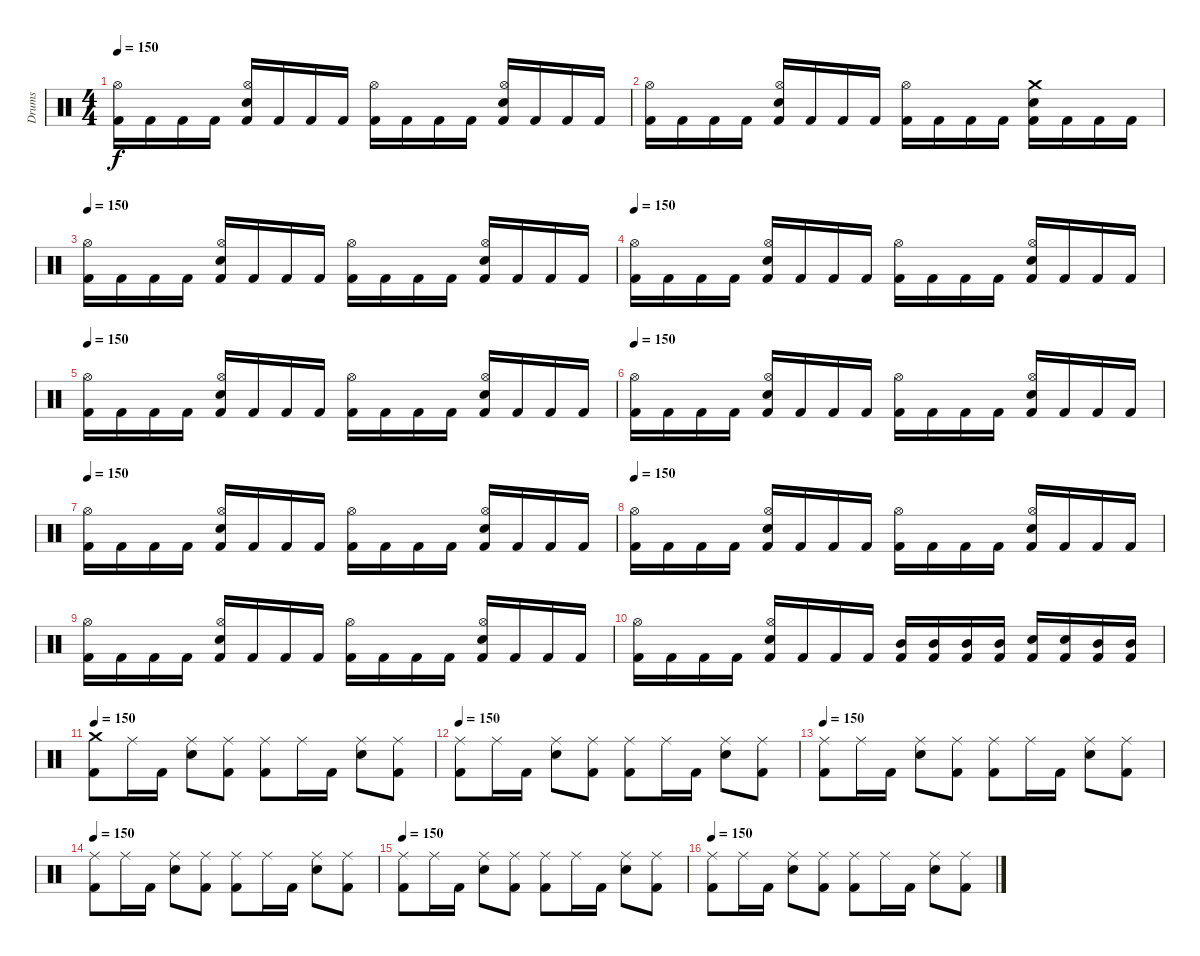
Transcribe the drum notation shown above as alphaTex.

\track ("Drums" "Drums") {instrument percussion}
\staff {score}
\articulation defaults
\ts (4 4)
\tempo 150
\clef neutral
\ks c
("Kick (hit) 2" "Hi-Hat (open)").16{dy f} "Kick (hit) 2".16 "Kick (hit) 2".16 "Kick (hit) 2".16 ("Kick (hit) 2" "Electric Snare (hit)" "Hi-Hat (open)").16 "Kick (hit) 2".16 "Kick (hit) 2".16 "Kick (hit) 2".16 ("Kick (hit) 2" "Hi-Hat (open)").16 "Kick (hit) 2".16 "Kick (hit) 2".16 "Kick (hit) 2".16 ("Kick (hit) 2" "Electric Snare (hit)" "Hi-Hat (open)").16 "Kick (hit) 2".16 "Kick (hit) 2".16 "Kick (hit) 2".16 |
("Kick (hit) 2" "Hi-Hat (open)").16 "Kick (hit) 2".16 "Kick (hit) 2".16 "Kick (hit) 2".16 ("Kick (hit) 2" "Electric Snare (hit)" "Hi-Hat (open)").16 "Kick (hit) 2".16 "Kick (hit) 2".16 "Kick (hit) 2".16 ("Kick (hit) 2" "Hi-Hat (open)").16 "Kick (hit) 2".16 "Kick (hit) 2".16 "Kick (hit) 2".16 ("Kick (hit) 2" "Electric Snare (hit)" "Crash medium (hit)").16 "Kick (hit) 2".16 "Kick (hit) 2".16 "Kick (hit) 2".16 |
\tempo 150
("Kick (hit) 2" "Hi-Hat (open)").16 "Kick (hit) 2".16 "Kick (hit) 2".16 "Kick (hit) 2".16 ("Kick (hit) 2" "Electric Snare (hit)" "Hi-Hat (open)").16 "Kick (hit) 2".16 "Kick (hit) 2".16 "Kick (hit) 2".16 ("Kick (hit) 2" "Hi-Hat (open)").16 "Kick (hit) 2".16 "Kick (hit) 2".16 "Kick (hit) 2".16 ("Kick (hit) 2" "Electric Snare (hit)" "Hi-Hat (open)").16 "Kick (hit) 2".16 "Kick (hit) 2".16 "Kick (hit) 2".16 |
\tempo 150
("Kick (hit) 2" "Hi-Hat (open)").16 "Kick (hit) 2".16 "Kick (hit) 2".16 "Kick (hit) 2".16 ("Kick (hit) 2" "Electric Snare (hit)" "Hi-Hat (open)").16 "Kick (hit) 2".16 "Kick (hit) 2".16 "Kick (hit) 2".16 ("Kick (hit) 2" "Hi-Hat (open)").16 "Kick (hit) 2".16 "Kick (hit) 2".16 "Kick (hit) 2".16 ("Kick (hit) 2" "Electric Snare (hit)" "Hi-Hat (open)").16 "Kick (hit) 2".16 "Kick (hit) 2".16 "Kick (hit) 2".16 |
\tempo 150
("Kick (hit) 2" "Hi-Hat (open)").16 "Kick (hit) 2".16 "Kick (hit) 2".16 "Kick (hit) 2".16 ("Kick (hit) 2" "Electric Snare (hit)" "Hi-Hat (open)").16 "Kick (hit) 2".16 "Kick (hit) 2".16 "Kick (hit) 2".16 ("Kick (hit) 2" "Hi-Hat (open)").16 "Kick (hit) 2".16 "Kick (hit) 2".16 "Kick (hit) 2".16 ("Kick (hit) 2" "Electric Snare (hit)" "Hi-Hat (open)").16 "Kick (hit) 2".16 "Kick (hit) 2".16 "Kick (hit) 2".16 |
\tempo 150
("Kick (hit) 2" "Hi-Hat (open)").16 "Kick (hit) 2".16 "Kick (hit) 2".16 "Kick (hit) 2".16 ("Kick (hit) 2" "Electric Snare (hit)" "Hi-Hat (open)").16 "Kick (hit) 2".16 "Kick (hit) 2".16 "Kick (hit) 2".16 ("Kick (hit) 2" "Hi-Hat (open)").16 "Kick (hit) 2".16 "Kick (hit) 2".16 "Kick (hit) 2".16 ("Kick (hit) 2" "Electric Snare (hit)" "Hi-Hat (open)").16 "Kick (hit) 2".16 "Kick (hit) 2".16 "Kick (hit) 2".16 |
\tempo 150
("Kick (hit) 2" "Hi-Hat (open)").16 "Kick (hit) 2".16 "Kick (hit) 2".16 "Kick (hit) 2".16 ("Kick (hit) 2" "Electric Snare (hit)" "Hi-Hat (open)").16 "Kick (hit) 2".16 "Kick (hit) 2".16 "Kick (hit) 2".16 ("Kick (hit) 2" "Hi-Hat (open)").16 "Kick (hit) 2".16 "Kick (hit) 2".16 "Kick (hit) 2".16 ("Kick (hit) 2" "Electric Snare (hit)" "Hi-Hat (open)").16 "Kick (hit) 2".16 "Kick (hit) 2".16 "Kick (hit) 2".16 |
\tempo 150
("Kick (hit) 2" "Hi-Hat (open)").16 "Kick (hit) 2".16 "Kick (hit) 2".16 "Kick (hit) 2".16 ("Kick (hit) 2" "Electric Snare (hit)" "Hi-Hat (open)").16 "Kick (hit) 2".16 "Kick (hit) 2".16 "Kick (hit) 2".16 ("Kick (hit) 2" "Hi-Hat (open)").16 "Kick (hit) 2".16 "Kick (hit) 2".16 "Kick (hit) 2".16 ("Kick (hit) 2" "Electric Snare (hit)" "Hi-Hat (open)").16 "Kick (hit) 2".16 "Kick (hit) 2".16 "Kick (hit) 2".16 |
("Kick (hit) 2" "Hi-Hat (open)").16 "Kick (hit) 2".16 "Kick (hit) 2".16 "Kick (hit) 2".16 ("Kick (hit) 2" "Electric Snare (hit)" "Hi-Hat (open)").16 "Kick (hit) 2".16 "Kick (hit) 2".16 "Kick (hit) 2".16 ("Kick (hit) 2" "Hi-Hat (open)").16 "Kick (hit) 2".16 "Kick (hit) 2".16 "Kick (hit) 2".16 ("Kick (hit) 2" "Electric Snare (hit)" "Hi-Hat (open)").16 "Kick (hit) 2".16 "Kick (hit) 2".16 "Kick (hit) 2".16 |
("Kick (hit) 2" "Hi-Hat (open)").16 "Kick (hit) 2".16 "Kick (hit) 2".16 "Kick (hit) 2".16 ("Kick (hit) 2" "Electric Snare (hit)" "Hi-Hat (open)").16 "Kick (hit) 2".16 "Kick (hit) 2".16 "Kick (hit) 2".16 ("Kick (hit) 2" "Mid Tom (hit)").16 ("Kick (hit) 2" "Mid Tom (hit)").16 ("Kick (hit) 2" "Mid Tom (hit)").16 ("Kick (hit) 2" "Mid Tom (hit)").16 ("Kick (hit) 2" "Electric Snare (hit)").16 ("Kick (hit) 2" "Electric Snare (hit)").16 ("Kick (hit) 2" "Mid Tom (hit)").16 ("Kick (hit) 2" "Mid Tom (hit)").16 |
\tempo 150
("Kick (hit) 2" "Crash medium (hit)").8 "Ride (middle)".16 "Kick (hit) 2".16 ("Electric Snare (hit)" "Ride (middle)").8 ("Kick (hit) 2" "Ride (middle)").8 ("Kick (hit) 2" "Ride (middle)").8 "Ride (middle)".16 "Kick (hit) 2".16 ("Electric Snare (hit)" "Ride (middle)").8 ("Kick (hit) 2" "Ride (middle)").8 |
\tempo 150
("Kick (hit) 2" "Ride (middle)").8 "Ride (middle)".16 "Kick (hit) 2".16 ("Electric Snare (hit)" "Ride (middle)").8 ("Kick (hit) 2" "Ride (middle)").8 ("Kick (hit) 2" "Ride (middle)").8 "Ride (middle)".16 "Kick (hit) 2".16 ("Electric Snare (hit)" "Ride (middle)").8 ("Kick (hit) 2" "Ride (middle)").8 |
\tempo 150
("Kick (hit) 2" "Ride (middle)").8 "Ride (middle)".16 "Kick (hit) 2".16 ("Electric Snare (hit)" "Ride (middle)").8 ("Kick (hit) 2" "Ride (middle)").8 ("Kick (hit) 2" "Ride (middle)").8 "Ride (middle)".16 "Kick (hit) 2".16 ("Electric Snare (hit)" "Ride (middle)").8 ("Kick (hit) 2" "Ride (middle)").8 |
\tempo 150
("Kick (hit) 2" "Ride (middle)").8 "Ride (middle)".16 "Kick (hit) 2".16 ("Electric Snare (hit)" "Ride (middle)").8 ("Kick (hit) 2" "Ride (middle)").8 ("Kick (hit) 2" "Ride (middle)").8 "Ride (middle)".16 "Kick (hit) 2".16 ("Electric Snare (hit)" "Ride (middle)").8 ("Kick (hit) 2" "Ride (middle)").8 |
\tempo 150
("Kick (hit) 2" "Ride (middle)").8 "Ride (middle)".16 "Kick (hit) 2".16 ("Electric Snare (hit)" "Ride (middle)").8 ("Kick (hit) 2" "Ride (middle)").8 ("Kick (hit) 2" "Ride (middle)").8 "Ride (middle)".16 "Kick (hit) 2".16 ("Electric Snare (hit)" "Ride (middle)").8 ("Kick (hit) 2" "Ride (middle)").8 |
\tempo 150
("Kick (hit) 2" "Ride (middle)").8 "Ride (middle)".16 "Kick (hit) 2".16 ("Electric Snare (hit)" "Ride (middle)").8 ("Kick (hit) 2" "Ride (middle)").8 ("Kick (hit) 2" "Ride (middle)").8 "Ride (middle)".16 "Kick (hit) 2".16 ("Electric Snare (hit)" "Ride (middle)").8 ("Kick (hit) 2" "Ride (middle)").8
